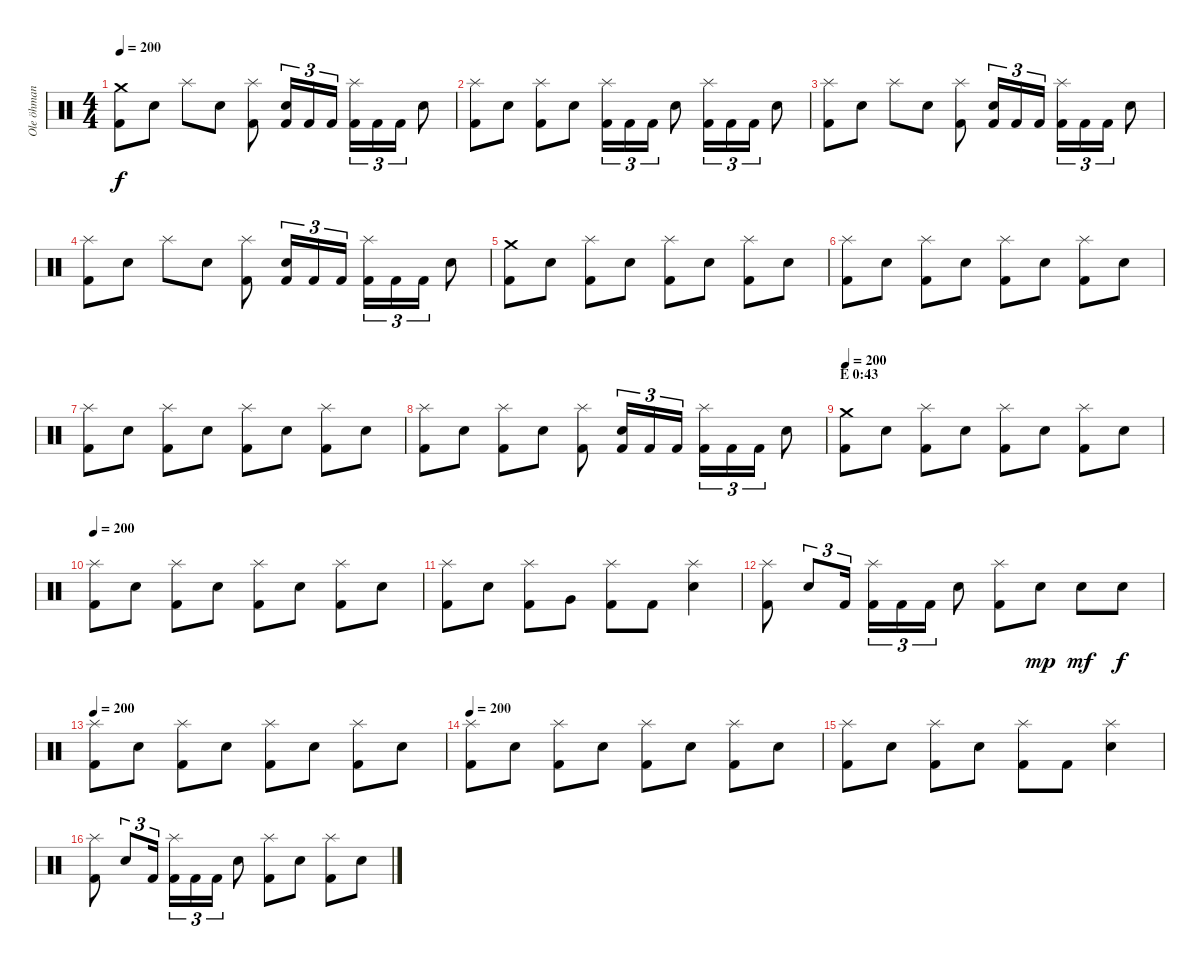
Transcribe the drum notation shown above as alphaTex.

\track ("Ole öhman" "Ole öhman") {instrument percussion}
\staff {score}
\articulation defaults
\ts (4 4)
\tempo 200
\clef neutral
\ks c
("Crash medium (hit)" "Kick (hit) 2").8{dy f} "Electric Snare (hit)".8 "Splash (hit)".8 "Electric Snare (hit)".8 ("Splash (hit)" "Kick (hit) 2").8 ("Electric Snare (hit)" "Kick (hit) 2").16{tu (3 2)} "Kick (hit) 2".16{tu (3 2)} "Kick (hit) 2".16{tu (3 2)} ("Splash (hit)" "Kick (hit) 2").16{tu (3 2)} "Kick (hit) 2".16{tu (3 2)} "Kick (hit) 2".16{tu (3 2)} "Electric Snare (hit)".8 |
("Splash (hit)" "Kick (hit) 2").8 "Electric Snare (hit)".8 ("Splash (hit)" "Kick (hit) 2").8 "Electric Snare (hit)".8 ("Splash (hit)" "Kick (hit) 2").16{tu (3 2)} "Kick (hit) 2".16{tu (3 2)} "Kick (hit) 2".16{tu (3 2)} "Electric Snare (hit)".8 ("Splash (hit)" "Kick (hit) 2").16{tu (3 2)} "Kick (hit) 2".16{tu (3 2)} "Kick (hit) 2".16{tu (3 2)} "Electric Snare (hit)".8 |
("Splash (hit)" "Kick (hit) 2").8 "Electric Snare (hit)".8 "Splash (hit)".8 "Electric Snare (hit)".8 ("Splash (hit)" "Kick (hit) 2").8 ("Electric Snare (hit)" "Kick (hit) 2").16{tu (3 2)} "Kick (hit) 2".16{tu (3 2)} "Kick (hit) 2".16{tu (3 2)} ("Splash (hit)" "Kick (hit) 2").16{tu (3 2)} "Kick (hit) 2".16{tu (3 2)} "Kick (hit) 2".16{tu (3 2)} "Electric Snare (hit)".8 |
("Splash (hit)" "Kick (hit) 2").8 "Electric Snare (hit)".8 "Splash (hit)".8 "Electric Snare (hit)".8 ("Splash (hit)" "Kick (hit) 2").8 ("Electric Snare (hit)" "Kick (hit) 2").16{tu (3 2)} "Kick (hit) 2".16{tu (3 2)} "Kick (hit) 2".16{tu (3 2)} ("Splash (hit)" "Kick (hit) 2").16{tu (3 2)} "Kick (hit) 2".16{tu (3 2)} "Kick (hit) 2".16{tu (3 2)} "Electric Snare (hit)".8 |
("Crash medium (hit)" "Kick (hit) 2").8 "Electric Snare (hit)".8 ("Splash (hit)" "Kick (hit) 2").8 "Electric Snare (hit)".8 ("Splash (hit)" "Kick (hit) 2").8 "Electric Snare (hit)".8 ("Splash (hit)" "Kick (hit) 2").8 "Electric Snare (hit)".8 |
("Splash (hit)" "Kick (hit) 2").8 "Electric Snare (hit)".8 ("Splash (hit)" "Kick (hit) 2").8 "Electric Snare (hit)".8 ("Splash (hit)" "Kick (hit) 2").8 "Electric Snare (hit)".8 ("Splash (hit)" "Kick (hit) 2").8 "Electric Snare (hit)".8 |
("Splash (hit)" "Kick (hit) 2").8 "Electric Snare (hit)".8 ("Splash (hit)" "Kick (hit) 2").8 "Electric Snare (hit)".8 ("Splash (hit)" "Kick (hit) 2").8 "Electric Snare (hit)".8 ("Splash (hit)" "Kick (hit) 2").8 "Electric Snare (hit)".8 |
("Splash (hit)" "Kick (hit) 2").8 "Electric Snare (hit)".8 ("Splash (hit)" "Kick (hit) 2").8 "Electric Snare (hit)".8 ("Splash (hit)" "Kick (hit) 2").8 ("Electric Snare (hit)" "Kick (hit) 2").16{tu (3 2)} "Kick (hit) 2".16{tu (3 2)} "Kick (hit) 2".16{tu (3 2)} ("Splash (hit)" "Kick (hit) 2").16{tu (3 2)} "Kick (hit) 2".16{tu (3 2)} "Kick (hit) 2".16{tu (3 2)} "Electric Snare (hit)".8 |
\section ("" "E 0:43")
\tempo 200
("Crash medium (hit)" "Kick (hit) 2").8 "Electric Snare (hit)".8 ("Splash (hit)" "Kick (hit) 2").8 "Electric Snare (hit)".8 ("Splash (hit)" "Kick (hit) 2").8 "Electric Snare (hit)".8 ("Splash (hit)" "Kick (hit) 2").8 "Electric Snare (hit)".8 |
\tempo 200
("Splash (hit)" "Kick (hit) 2").8 "Electric Snare (hit)".8 ("Splash (hit)" "Kick (hit) 2").8 "Electric Snare (hit)".8 ("Splash (hit)" "Kick (hit) 2").8 "Electric Snare (hit)".8 ("Splash (hit)" "Kick (hit) 2").8 "Electric Snare (hit)".8 |
("Splash (hit)" "Kick (hit) 2").8 "Electric Snare (hit)".8 ("Splash (hit)" "Kick (hit) 2").8 "Very Low Tom (hit)".8 ("Splash (hit)" "Kick (hit) 2").8 "Kick (hit) 2".8 ("Splash (hit)" "Electric Snare (hit)").4 |
("Splash (hit)" "Kick (hit) 2").8 "Electric Snare (hit)".8{tu (3 2)} "Kick (hit) 2".16{tu (3 2)} ("Splash (hit)" "Kick (hit) 2").16{tu (3 2)} "Kick (hit) 2".16{tu (3 2)} "Kick (hit) 2".16{tu (3 2)} "Electric Snare (hit)".8 ("Splash (hit)" "Kick (hit) 2").8 "Electric Snare (hit)".8{dy mp} "Electric Snare (hit)".8{dy mf} "Electric Snare (hit)".8{dy f} |
\tempo 200
("Splash (hit)" "Kick (hit) 2").8 "Electric Snare (hit)".8 ("Splash (hit)" "Kick (hit) 2").8 "Electric Snare (hit)".8 ("Splash (hit)" "Kick (hit) 2").8 "Electric Snare (hit)".8 ("Splash (hit)" "Kick (hit) 2").8 "Electric Snare (hit)".8 |
\tempo 200
("Splash (hit)" "Kick (hit) 2").8 "Electric Snare (hit)".8 ("Splash (hit)" "Kick (hit) 2").8 "Electric Snare (hit)".8 ("Splash (hit)" "Kick (hit) 2").8 "Electric Snare (hit)".8 ("Splash (hit)" "Kick (hit) 2").8 "Electric Snare (hit)".8 |
("Splash (hit)" "Kick (hit) 2").8 "Electric Snare (hit)".8 ("Splash (hit)" "Kick (hit) 2").8 "Electric Snare (hit)".8 ("Splash (hit)" "Kick (hit) 2").8 "Kick (hit) 2".8 ("Splash (hit)" "Electric Snare (hit)").4 |
("Splash (hit)" "Kick (hit) 2").8 "Electric Snare (hit)".8{tu (3 2)} "Kick (hit) 2".16{tu (3 2)} ("Splash (hit)" "Kick (hit) 2").16{tu (3 2)} "Kick (hit) 2".16{tu (3 2)} "Kick (hit) 2".16{tu (3 2)} "Electric Snare (hit)".8 ("Splash (hit)" "Kick (hit) 2").8 "Electric Snare (hit)".8 ("Splash (hit)" "Kick (hit) 2").8 "Electric Snare (hit)".8
